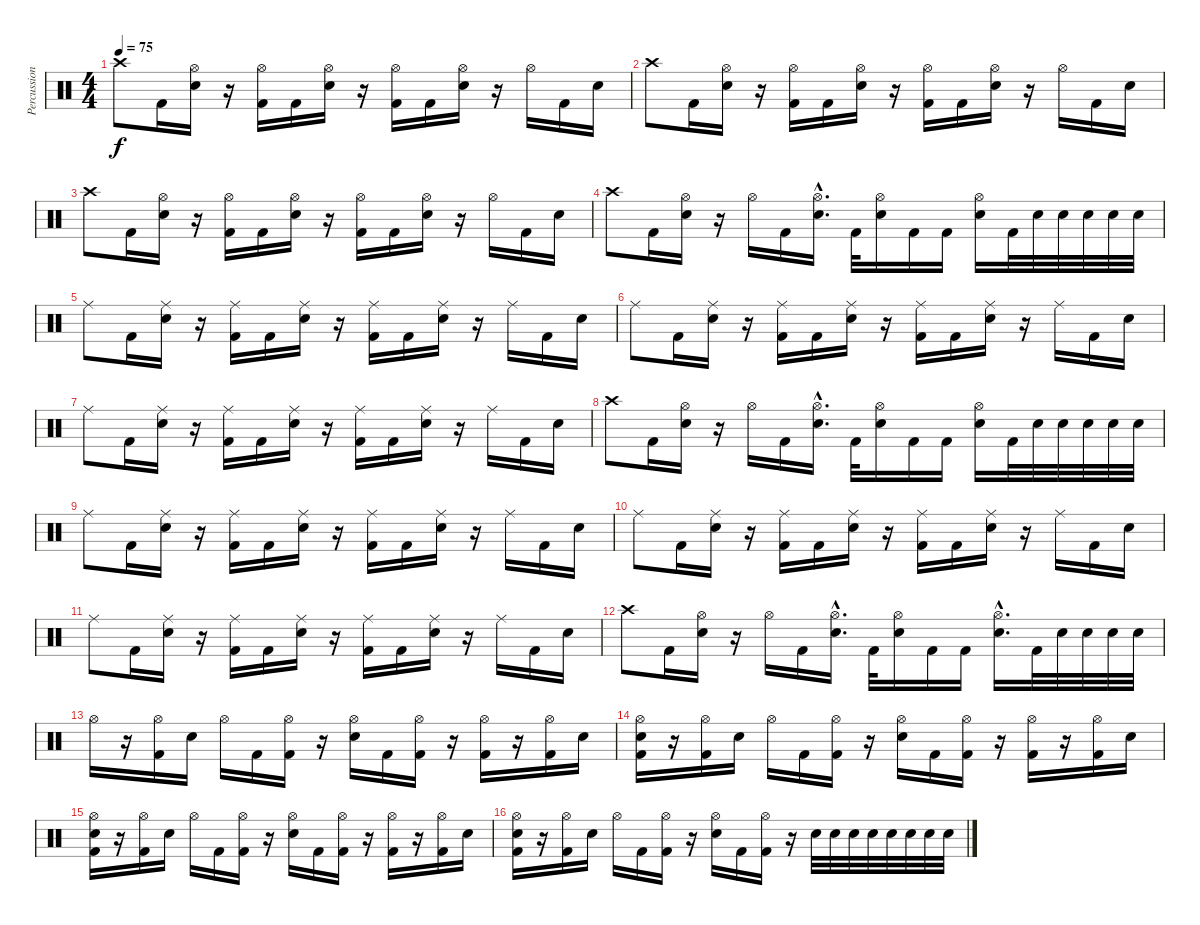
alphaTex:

\track ("Percussion" "Percussion") {instrument percussion}
\staff {score}
\articulation defaults
\ts (4 4)
\tempo 75
\clef neutral
\ks c "Crash high (hit)".8{dy f} "Kick (hit) 2".16
("Hi-Hat (open)" "Snare (hit) 2").16 r.16 ("Hi-Hat (open)" "Kick (hit) 2").16 "Kick (hit) 2".16 ("Hi-Hat (open)" "Snare (hit) 2").16 r.16 ("Hi-Hat (open)" "Kick (hit) 2").16 "Kick (hit) 2".16 ("Hi-Hat (open)" "Snare (hit) 2").16 r.16 "Hi-Hat (open)".16 "Kick (hit) 2".16 "Snare (hit) 2".16 |
"Crash high (hit)".8 "Kick (hit) 2".16 ("Hi-Hat (open)" "Snare (hit) 2").16 r.16 ("Hi-Hat (open)" "Kick (hit) 2").16 "Kick (hit) 2".16 ("Hi-Hat (open)" "Snare (hit) 2").16 r.16 ("Hi-Hat (open)" "Kick (hit) 2").16 "Kick (hit) 2".16 ("Hi-Hat (open)" "Snare (hit) 2").16 r.16 "Hi-Hat (open)".16 "Kick (hit) 2".16 "Snare (hit) 2".16 |
"Crash high (hit)".8 "Kick (hit) 2".16 ("Hi-Hat (open)" "Snare (hit) 2").16 r.16 ("Hi-Hat (open)" "Kick (hit) 2").16 "Kick (hit) 2".16 ("Hi-Hat (open)" "Snare (hit) 2").16 r.16 ("Hi-Hat (open)" "Kick (hit) 2").16 "Kick (hit) 2".16 ("Hi-Hat (open)" "Snare (hit) 2").16 r.16 "Hi-Hat (open)".16 "Kick (hit) 2".16 "Snare (hit) 2".16 |
"Crash high (hit)".8 "Kick (hit) 2".16 ("Hi-Hat (open)" "Snare (hit) 2").16 r.16 "Hi-Hat (open)".16 "Kick (hit) 2".16 ("Hi-Hat (open)"{hac} "Snare (hit) 2"{hac}).16{d} "Kick (hit) 2".32 ("Hi-Hat (open)" "Snare (hit) 2").16 "Kick (hit) 2".16 "Kick (hit) 2".16 ("Hi-Hat (open)" "Snare (hit) 2").16 "Kick (hit) 2".32 "Snare (hit) 2".32 "Snare (hit) 2".32 "Snare (hit) 2".32 "Snare (hit) 2".32 "Snare (hit) 2".32 |
"Ride (middle)".8 "Kick (hit) 2".16 ("Ride (middle)" "Snare (hit) 2").16 r.16 ("Ride (middle)" "Kick (hit) 2").16 "Kick (hit) 2".16 ("Ride (middle)" "Snare (hit) 2").16 r.16 ("Ride (middle)" "Kick (hit) 2").16 "Kick (hit) 2".16 ("Ride (middle)" "Snare (hit) 2").16 r.16 "Ride (middle)".16 "Kick (hit) 2".16 "Snare (hit) 2".16 |
"Ride (middle)".8 "Kick (hit) 2".16 ("Ride (middle)" "Snare (hit) 2").16 r.16 ("Ride (middle)" "Kick (hit) 2").16 "Kick (hit) 2".16 ("Ride (middle)" "Snare (hit) 2").16 r.16 ("Ride (middle)" "Kick (hit) 2").16 "Kick (hit) 2".16 ("Ride (middle)" "Snare (hit) 2").16 r.16 "Ride (middle)".16 "Kick (hit) 2".16 "Snare (hit) 2".16 |
"Ride (middle)".8 "Kick (hit) 2".16 ("Ride (middle)" "Snare (hit) 2").16 r.16 ("Ride (middle)" "Kick (hit) 2").16 "Kick (hit) 2".16 ("Ride (middle)" "Snare (hit) 2").16 r.16 ("Ride (middle)" "Kick (hit) 2").16 "Kick (hit) 2".16 ("Ride (middle)" "Snare (hit) 2").16 r.16 "Ride (middle)".16 "Kick (hit) 2".16 "Snare (hit) 2".16 |
"Crash high (hit)".8 "Kick (hit) 2".16 ("Hi-Hat (open)" "Snare (hit) 2").16 r.16 "Hi-Hat (open)".16 "Kick (hit) 2".16 ("Hi-Hat (open)"{hac} "Snare (hit) 2"{hac}).16{d} "Kick (hit) 2".32 ("Hi-Hat (open)" "Snare (hit) 2").16 "Kick (hit) 2".16 "Kick (hit) 2".16 ("Hi-Hat (open)" "Snare (hit) 2").16 "Kick (hit) 2".32 "Snare (hit) 2".32 "Snare (hit) 2".32 "Snare (hit) 2".32 "Snare (hit) 2".32 "Snare (hit) 2".32 |
"Ride (middle)".8 "Kick (hit) 2".16 ("Ride (middle)" "Snare (hit) 2").16 r.16 ("Ride (middle)" "Kick (hit) 2").16 "Kick (hit) 2".16 ("Ride (middle)" "Snare (hit) 2").16 r.16 ("Ride (middle)" "Kick (hit) 2").16 "Kick (hit) 2".16 ("Ride (middle)" "Snare (hit) 2").16 r.16 "Ride (middle)".16 "Kick (hit) 2".16 "Snare (hit) 2".16 |
"Ride (middle)".8 "Kick (hit) 2".16 ("Ride (middle)" "Snare (hit) 2").16 r.16 ("Ride (middle)" "Kick (hit) 2").16 "Kick (hit) 2".16 ("Ride (middle)" "Snare (hit) 2").16 r.16 ("Ride (middle)" "Kick (hit) 2").16 "Kick (hit) 2".16 ("Ride (middle)" "Snare (hit) 2").16 r.16 "Ride (middle)".16 "Kick (hit) 2".16 "Snare (hit) 2".16 |
"Ride (middle)".8 "Kick (hit) 2".16 ("Ride (middle)" "Snare (hit) 2").16 r.16 ("Ride (middle)" "Kick (hit) 2").16 "Kick (hit) 2".16 ("Ride (middle)" "Snare (hit) 2").16 r.16 ("Ride (middle)" "Kick (hit) 2").16 "Kick (hit) 2".16 ("Ride (middle)" "Snare (hit) 2").16 r.16 "Ride (middle)".16 "Kick (hit) 2".16 "Snare (hit) 2".16 |
"Crash high (hit)".8 "Kick (hit) 2".16 ("Hi-Hat (open)" "Snare (hit) 2").16 r.16 "Hi-Hat (open)".16 "Kick (hit) 2".16 ("Hi-Hat (open)"{hac} "Snare (hit) 2"{hac}).16{d} "Kick (hit) 2".32 ("Hi-Hat (open)" "Snare (hit) 2").16 "Kick (hit) 2".16 "Kick (hit) 2".16 ("Hi-Hat (open)"{hac} "Snare (hit) 2"{hac}).16{d} "Kick (hit) 2".32 "Snare (hit) 2".32 "Snare (hit) 2".32 "Snare (hit) 2".32 "Snare (hit) 2".32 |
"Hi-Hat (open)".16 r.16 ("Hi-Hat (open)" "Kick (hit) 2").16 "Snare (hit) 2".16 "Hi-Hat (open)".16 "Kick (hit) 2".16 ("Hi-Hat (open)" "Kick (hit) 2").16 r.16 ("Hi-Hat (open)" "Snare (hit) 2").16 "Kick (hit) 2".16 ("Hi-Hat (open)" "Kick (hit) 2").16 r.16 ("Hi-Hat (open)" "Kick (hit) 2").16 r.16 ("Hi-Hat (open)" "Kick (hit) 2").16 "Snare (hit) 2".16 |
("Hi-Hat (open)" "Kick (hit) 2" "Snare (hit) 2").16 r.16 ("Hi-Hat (open)" "Kick (hit) 2").16 "Snare (hit) 2".16 "Hi-Hat (open)".16 "Kick (hit) 2".16 ("Hi-Hat (open)" "Kick (hit) 2").16 r.16 ("Hi-Hat (open)" "Snare (hit) 2").16 "Kick (hit) 2".16 ("Hi-Hat (open)" "Kick (hit) 2").16 r.16 ("Hi-Hat (open)" "Kick (hit) 2").16 r.16 ("Hi-Hat (open)" "Kick (hit) 2").16 "Snare (hit) 2".16 |
("Hi-Hat (open)" "Kick (hit) 2" "Snare (hit) 2").16 r.16 ("Hi-Hat (open)" "Kick (hit) 2").16 "Snare (hit) 2".16 "Hi-Hat (open)".16 "Kick (hit) 2".16 ("Hi-Hat (open)" "Kick (hit) 2").16 r.16 ("Hi-Hat (open)" "Snare (hit) 2").16 "Kick (hit) 2".16 ("Hi-Hat (open)" "Kick (hit) 2").16 r.16 ("Hi-Hat (open)" "Kick (hit) 2").16 r.16 ("Hi-Hat (open)" "Kick (hit) 2").16 "Snare (hit) 2".16 |
("Hi-Hat (open)" "Kick (hit) 2" "Snare (hit) 2").16 r.16 ("Hi-Hat (open)" "Kick (hit) 2").16 "Snare (hit) 2".16 "Hi-Hat (open)".16 "Kick (hit) 2".16 ("Hi-Hat (open)" "Kick (hit) 2").16 r.16 ("Hi-Hat (open)" "Snare (hit) 2").16 "Kick (hit) 2".16 ("Hi-Hat (open)" "Kick (hit) 2").16 r.16 "Snare (hit) 2".32 "Snare (hit) 2".32 "Snare (hit) 2".32 "Snare (hit) 2".32 "Snare (hit) 2".32 "Snare (hit) 2".32 "Snare (hit) 2".32 "Snare (hit) 2".32
